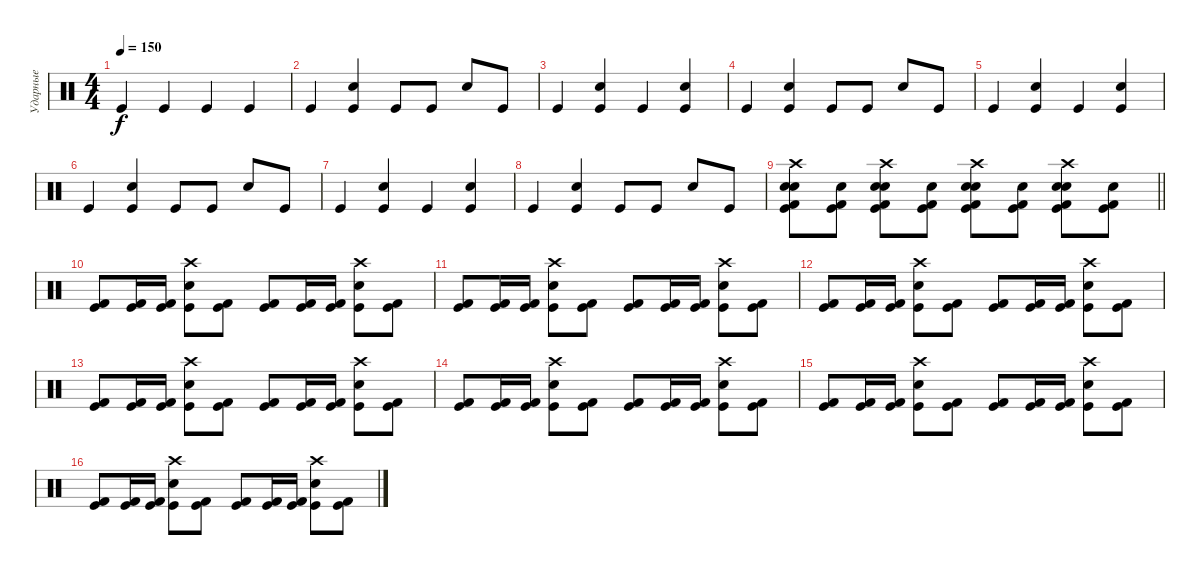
\track ("Ударные" "Ударные") {instrument percussion}
\staff {score}
\articulation defaults
\ts (4 4)
\tempo 150
\clef neutral
\ks c "Kick (hit)".4{dy f} "Kick (hit)".4 "Kick (hit)".4 "Kick (hit)".4
|
"Kick (hit)".4 ("Kick (hit)" "Electric Snare (hit)").4 "Kick (hit)".8 "Kick (hit)".8 "Electric Snare (hit)".8 "Kick (hit)".8 |
"Kick (hit)".4 ("Kick (hit)" "Electric Snare (hit)").4 "Kick (hit)".4 ("Kick (hit)" "Electric Snare (hit)").4 |
"Kick (hit)".4 ("Kick (hit)" "Electric Snare (hit)").4 "Kick (hit)".8 "Kick (hit)".8 "Electric Snare (hit)".8 "Kick (hit)".8 |
"Kick (hit)".4 ("Kick (hit)" "Electric Snare (hit)").4 "Kick (hit)".4 ("Kick (hit)" "Electric Snare (hit)").4 |
"Kick (hit)".4 ("Kick (hit)" "Electric Snare (hit)").4 "Kick (hit)".8 "Kick (hit)".8 "Electric Snare (hit)".8 "Kick (hit)".8 |
"Kick (hit)".4 ("Kick (hit)" "Electric Snare (hit)").4 "Kick (hit)".4 ("Kick (hit)" "Electric Snare (hit)").4 |
"Kick (hit)".4 ("Kick (hit)" "Electric Snare (hit)").4 "Kick (hit)".8 "Kick (hit)".8 "Electric Snare (hit)".8 "Kick (hit)".8 |
\barLineRight lightlight
("Kick (hit)" "Electric Snare (hit)" "Snare (hit) 2" "Kick (hit) 2" "Crash high (hit)").8 ("Kick (hit)" "Electric Snare (hit)" "Kick (hit) 2").8 ("Kick (hit)" "Electric Snare (hit)" "Snare (hit) 2" "Kick (hit) 2" "Crash high (hit)").8 ("Kick (hit)" "Electric Snare (hit)" "Kick (hit) 2").8 ("Kick (hit)" "Electric Snare (hit)" "Snare (hit) 2" "Kick (hit) 2" "Crash high (hit)").8 ("Kick (hit)" "Electric Snare (hit)" "Kick (hit) 2").8 ("Kick (hit)" "Electric Snare (hit)" "Snare (hit) 2" "Kick (hit) 2" "Crash high (hit)").8 ("Kick (hit)" "Electric Snare (hit)" "Kick (hit) 2").8 |
("Kick (hit)" "Kick (hit) 2").8 ("Kick (hit)" "Kick (hit) 2").16 ("Kick (hit)" "Kick (hit) 2").16 ("Kick (hit)" "Electric Snare (hit)" "Crash high (hit)").8 ("Kick (hit)" "Kick (hit) 2").8 ("Kick (hit)" "Kick (hit) 2").8 ("Kick (hit)" "Kick (hit) 2").16 ("Kick (hit)" "Kick (hit) 2").16 ("Kick (hit)" "Electric Snare (hit)" "Crash high (hit)").8 ("Kick (hit)" "Kick (hit) 2").8 |
("Kick (hit)" "Kick (hit) 2").8 ("Kick (hit)" "Kick (hit) 2").16 ("Kick (hit)" "Kick (hit) 2").16 ("Kick (hit)" "Electric Snare (hit)" "Crash high (hit)").8 ("Kick (hit)" "Kick (hit) 2").8 ("Kick (hit)" "Kick (hit) 2").8 ("Kick (hit)" "Kick (hit) 2").16 ("Kick (hit)" "Kick (hit) 2").16 ("Kick (hit)" "Electric Snare (hit)" "Crash high (hit)").8 ("Kick (hit)" "Kick (hit) 2").8 |
("Kick (hit)" "Kick (hit) 2").8 ("Kick (hit)" "Kick (hit) 2").16 ("Kick (hit)" "Kick (hit) 2").16 ("Kick (hit)" "Electric Snare (hit)" "Crash high (hit)").8 ("Kick (hit)" "Kick (hit) 2").8 ("Kick (hit)" "Kick (hit) 2").8 ("Kick (hit)" "Kick (hit) 2").16 ("Kick (hit)" "Kick (hit) 2").16 ("Kick (hit)" "Electric Snare (hit)" "Crash high (hit)").8 ("Kick (hit)" "Kick (hit) 2").8 |
("Kick (hit)" "Kick (hit) 2").8 ("Kick (hit)" "Kick (hit) 2").16 ("Kick (hit)" "Kick (hit) 2").16 ("Kick (hit)" "Electric Snare (hit)" "Crash high (hit)").8 ("Kick (hit)" "Kick (hit) 2").8 ("Kick (hit)" "Kick (hit) 2").8 ("Kick (hit)" "Kick (hit) 2").16 ("Kick (hit)" "Kick (hit) 2").16 ("Kick (hit)" "Electric Snare (hit)" "Crash high (hit)").8 ("Kick (hit)" "Kick (hit) 2").8 |
("Kick (hit)" "Kick (hit) 2").8 ("Kick (hit)" "Kick (hit) 2").16 ("Kick (hit)" "Kick (hit) 2").16 ("Kick (hit)" "Electric Snare (hit)" "Crash high (hit)").8 ("Kick (hit)" "Kick (hit) 2").8 ("Kick (hit)" "Kick (hit) 2").8 ("Kick (hit)" "Kick (hit) 2").16 ("Kick (hit)" "Kick (hit) 2").16 ("Kick (hit)" "Electric Snare (hit)" "Crash high (hit)").8 ("Kick (hit)" "Kick (hit) 2").8 |
("Kick (hit)" "Kick (hit) 2").8 ("Kick (hit)" "Kick (hit) 2").16 ("Kick (hit)" "Kick (hit) 2").16 ("Kick (hit)" "Electric Snare (hit)" "Crash high (hit)").8 ("Kick (hit)" "Kick (hit) 2").8 ("Kick (hit)" "Kick (hit) 2").8 ("Kick (hit)" "Kick (hit) 2").16 ("Kick (hit)" "Kick (hit) 2").16 ("Kick (hit)" "Electric Snare (hit)" "Crash high (hit)").8 ("Kick (hit)" "Kick (hit) 2").8 |
("Kick (hit)" "Kick (hit) 2").8 ("Kick (hit)" "Kick (hit) 2").16 ("Kick (hit)" "Kick (hit) 2").16 ("Kick (hit)" "Electric Snare (hit)" "Crash high (hit)").8 ("Kick (hit)" "Kick (hit) 2").8 ("Kick (hit)" "Kick (hit) 2").8 ("Kick (hit)" "Kick (hit) 2").16 ("Kick (hit)" "Kick (hit) 2").16 ("Kick (hit)" "Electric Snare (hit)" "Crash high (hit)").8 ("Kick (hit)" "Kick (hit) 2").8
